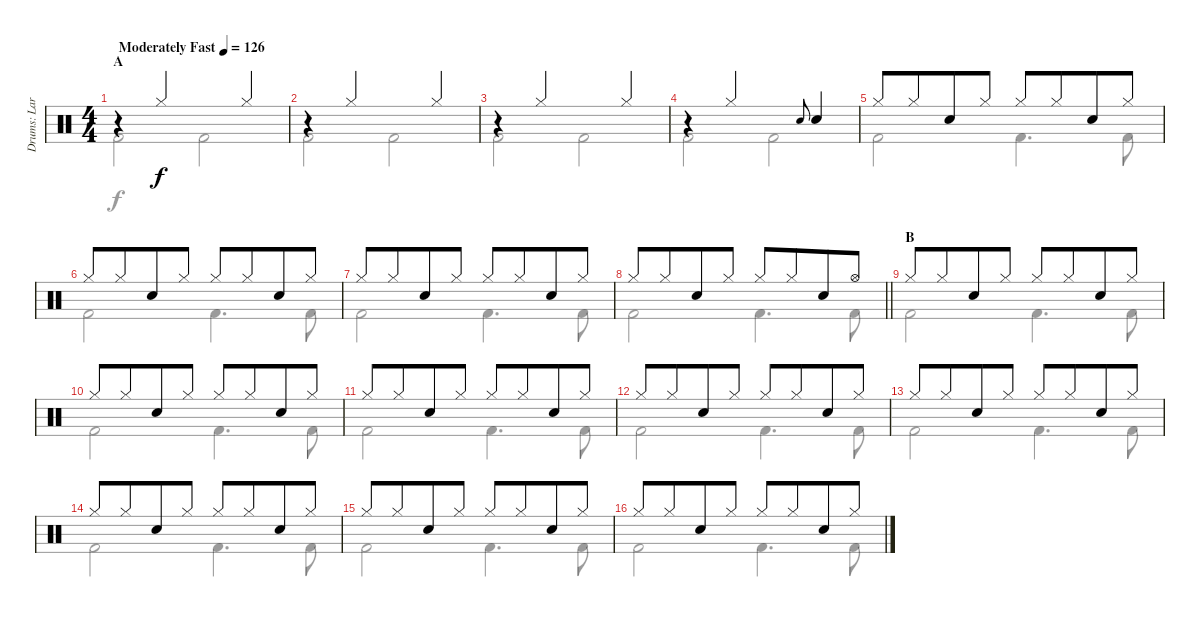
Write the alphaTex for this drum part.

\track ("Drums: Larrie" "Drums: Lar") {instrument percussion}
\staff {score}
\articulation defaults
\voice
\ts (4 4)
\section ("" "A")
\tempo (126 "Moderately Fast")
\clef neutral
\ks c
r.4{dy f} "Hi-Hat (closed)".2 "Hi-Hat (closed)".4 |
r.4 "Hi-Hat (closed)".2 "Hi-Hat (closed)".4 |
r.4 "Hi-Hat (closed)".2 "Hi-Hat (closed)".4 |
r.4 "Hi-Hat (closed)".2 "Electric Snare (hit)".8{gr onbeat} "Snare (hit) 2".4 |
"Hi-Hat (closed)".8 "Hi-Hat (closed)".8{beam merge} "Snare (hit) 2".8 "Hi-Hat (closed)".8 "Hi-Hat (closed)".8 "Hi-Hat (closed)".8{beam merge} "Snare (hit) 2".8 "Hi-Hat (closed)".8 |
"Hi-Hat (closed)".8 "Hi-Hat (closed)".8{beam merge} "Snare (hit) 2".8 "Hi-Hat (closed)".8 "Hi-Hat (closed)".8 "Hi-Hat (closed)".8{beam merge} "Snare (hit) 2".8 "Hi-Hat (closed)".8 |
"Hi-Hat (closed)".8 "Hi-Hat (closed)".8{beam merge} "Snare (hit) 2".8 "Hi-Hat (closed)".8 "Hi-Hat (closed)".8 "Hi-Hat (closed)".8{beam merge} "Snare (hit) 2".8 "Hi-Hat (closed)".8 |
\barLineRight lightlight "Hi-Hat (closed)".8 "Hi-Hat (closed)".8{beam merge} "Snare (hit) 2".8 "Hi-Hat (closed)".8 "Hi-Hat (closed)".8 "Hi-Hat (closed)".8{beam merge} "Snare (hit) 2".8 "Hi-Hat (open)".8
|
\section ("" "B")
"Hi-Hat (closed)".8 "Hi-Hat (closed)".8{beam merge} "Snare (hit) 2".8 "Hi-Hat (closed)".8 "Hi-Hat (closed)".8 "Hi-Hat (closed)".8{beam merge} "Snare (hit) 2".8 "Hi-Hat (closed)".8 |
"Hi-Hat (closed)".8 "Hi-Hat (closed)".8{beam merge} "Snare (hit) 2".8 "Hi-Hat (closed)".8 "Hi-Hat (closed)".8 "Hi-Hat (closed)".8{beam merge} "Snare (hit) 2".8 "Hi-Hat (closed)".8 |
"Hi-Hat (closed)".8 "Hi-Hat (closed)".8{beam merge} "Snare (hit) 2".8 "Hi-Hat (closed)".8 "Hi-Hat (closed)".8 "Hi-Hat (closed)".8{beam merge} "Snare (hit) 2".8 "Hi-Hat (closed)".8 |
"Hi-Hat (closed)".8 "Hi-Hat (closed)".8{beam merge} "Snare (hit) 2".8 "Hi-Hat (closed)".8 "Hi-Hat (closed)".8 "Hi-Hat (closed)".8{beam merge} "Snare (hit) 2".8 "Hi-Hat (closed)".8 |
"Hi-Hat (closed)".8 "Hi-Hat (closed)".8{beam merge} "Snare (hit) 2".8 "Hi-Hat (closed)".8 "Hi-Hat (closed)".8 "Hi-Hat (closed)".8{beam merge} "Snare (hit) 2".8 "Hi-Hat (closed)".8 |
"Hi-Hat (closed)".8 "Hi-Hat (closed)".8{beam merge} "Snare (hit) 2".8 "Hi-Hat (closed)".8 "Hi-Hat (closed)".8 "Hi-Hat (closed)".8{beam merge} "Snare (hit) 2".8 "Hi-Hat (closed)".8 |
"Hi-Hat (closed)".8 "Hi-Hat (closed)".8{beam merge} "Snare (hit) 2".8 "Hi-Hat (closed)".8 "Hi-Hat (closed)".8 "Hi-Hat (closed)".8{beam merge} "Snare (hit) 2".8 "Hi-Hat (closed)".8 |
"Hi-Hat (closed)".8 "Hi-Hat (closed)".8{beam merge} "Snare (hit) 2".8 "Hi-Hat (closed)".8 "Hi-Hat (closed)".8 "Hi-Hat (closed)".8{beam merge} "Snare (hit) 2".8 "Hi-Hat (closed)".8
\voice
\clef neutral
\ottava regular
\simile none
\ks c "Kick (hit) 2".2{dy f} "Kick (hit) 2".2
|
"Kick (hit) 2".2 "Kick (hit) 2".2 |
"Kick (hit) 2".2 "Kick (hit) 2".2 |
"Kick (hit) 2".2 "Kick (hit) 2".2 |
"Kick (hit) 2".2 "Kick (hit) 2".4{d} "Kick (hit) 2".8 |
"Kick (hit) 2".2 "Kick (hit) 2".4{d} "Kick (hit) 2".8 |
"Kick (hit) 2".2 "Kick (hit) 2".4{d} "Kick (hit) 2".8 |
\barLineRight lightlight "Kick (hit) 2".2 "Kick (hit) 2".4{d} "Kick (hit) 2".8
|
"Kick (hit) 2".2 "Kick (hit) 2".4{d} "Kick (hit) 2".8 |
"Kick (hit) 2".2 "Kick (hit) 2".4{d} "Kick (hit) 2".8 |
"Kick (hit) 2".2 "Kick (hit) 2".4{d} "Kick (hit) 2".8 |
"Kick (hit) 2".2 "Kick (hit) 2".4{d} "Kick (hit) 2".8 |
"Kick (hit) 2".2 "Kick (hit) 2".4{d} "Kick (hit) 2".8 |
"Kick (hit) 2".2 "Kick (hit) 2".4{d} "Kick (hit) 2".8 |
"Kick (hit) 2".2 "Kick (hit) 2".4{d} "Kick (hit) 2".8 |
"Kick (hit) 2".2 "Kick (hit) 2".4{d} "Kick (hit) 2".8
